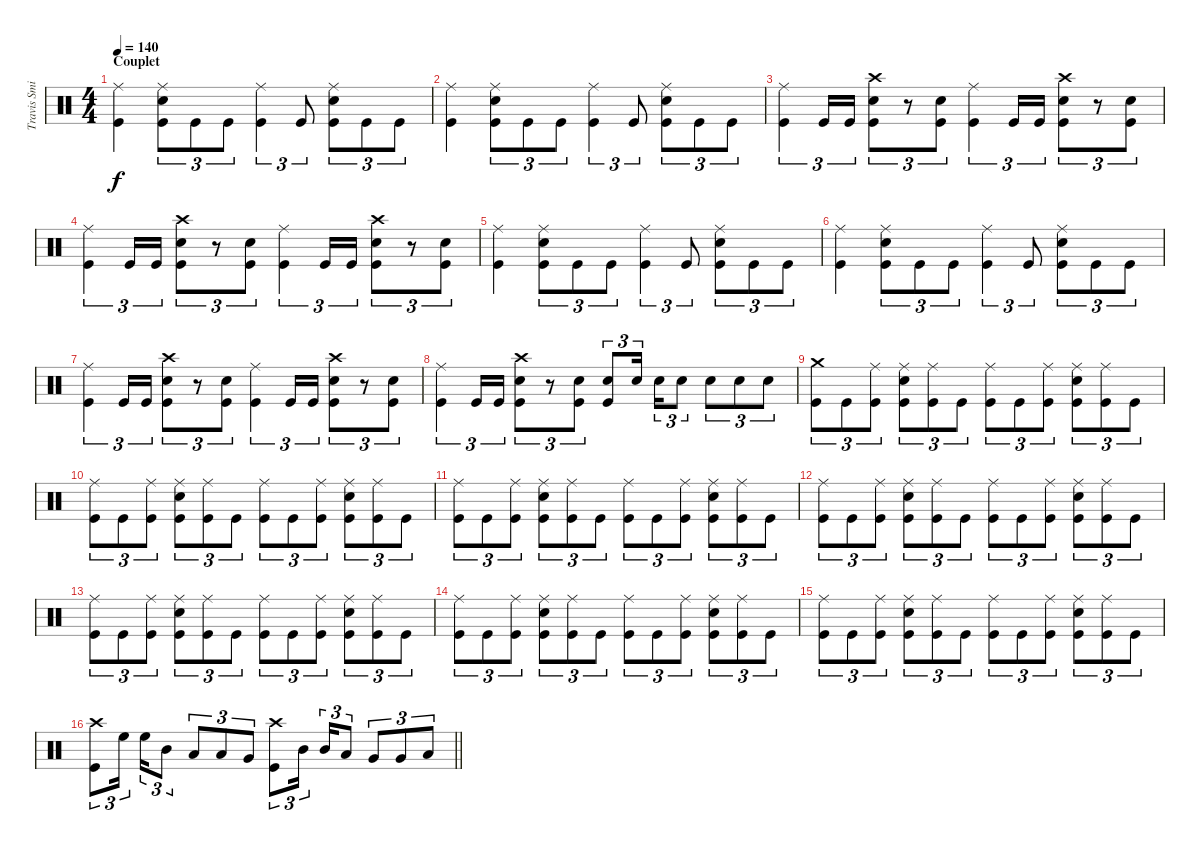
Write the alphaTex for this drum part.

\track ("Travis Smith" "Travis Smi") {instrument percussion}
\staff {score}
\articulation defaults
\ts (4 4)
\section ("" "Couplet ")
\tempo 140
\clef neutral
\ks c
("Ride (middle)" "Kick (hit)").4{dy f} ("Ride (middle)" "Snare (hit) 2" "Kick (hit)").8{tu (3 2)} "Kick (hit)".8{tu (3 2)} "Kick (hit)".8{tu (3 2)} ("Ride (middle)" "Kick (hit)").4{tu (3 2)} "Kick (hit)".8{tu (3 2)} ("Ride (middle)" "Snare (hit) 2" "Kick (hit)").8{tu (3 2)} "Kick (hit)".8{tu (3 2)} "Kick (hit)".8{tu (3 2)} |
("Ride (middle)" "Kick (hit)").4 ("Ride (middle)" "Snare (hit) 2" "Kick (hit)").8{tu (3 2)} "Kick (hit)".8{tu (3 2)} "Kick (hit)".8{tu (3 2)} ("Ride (middle)" "Kick (hit)").4{tu (3 2)} "Kick (hit)".8{tu (3 2)} ("Ride (middle)" "Snare (hit) 2" "Kick (hit)").8{tu (3 2)} "Kick (hit)".8{tu (3 2)} "Kick (hit)".8{tu (3 2)} |
("Ride (middle)" "Kick (hit)").4{tu (3 2)} "Kick (hit)".16{tu (3 2)} "Kick (hit)".16{tu (3 2)} ("Crash high (hit)" "Snare (hit) 2" "Kick (hit)").8{tu (3 2)} r.8{tu (3 2)} ("Snare (hit) 2" "Kick (hit)").8{tu (3 2)} ("Ride (middle)" "Kick (hit)").4{tu (3 2)} "Kick (hit)".16{tu (3 2)} "Kick (hit)".16{tu (3 2)} ("Crash high (hit)" "Snare (hit) 2" "Kick (hit)").8{tu (3 2)} r.8{tu (3 2)} ("Snare (hit) 2" "Kick (hit)").8{tu (3 2)} |
("Ride (middle)" "Kick (hit)").4{tu (3 2)} "Kick (hit)".16{tu (3 2)} "Kick (hit)".16{tu (3 2)} ("Crash high (hit)" "Snare (hit) 2" "Kick (hit)").8{tu (3 2)} r.8{tu (3 2)} ("Snare (hit) 2" "Kick (hit)").8{tu (3 2)} ("Ride (middle)" "Kick (hit)").4{tu (3 2)} "Kick (hit)".16{tu (3 2)} "Kick (hit)".16{tu (3 2)} ("Crash high (hit)" "Snare (hit) 2" "Kick (hit)").8{tu (3 2)} r.8{tu (3 2)} ("Snare (hit) 2" "Kick (hit)").8{tu (3 2)} |
("Ride (middle)" "Kick (hit)").4 ("Ride (middle)" "Snare (hit) 2" "Kick (hit)").8{tu (3 2)} "Kick (hit)".8{tu (3 2)} "Kick (hit)".8{tu (3 2)} ("Ride (middle)" "Kick (hit)").4{tu (3 2)} "Kick (hit)".8{tu (3 2)} ("Ride (middle)" "Snare (hit) 2" "Kick (hit)").8{tu (3 2)} "Kick (hit)".8{tu (3 2)} "Kick (hit)".8{tu (3 2)} |
("Ride (middle)" "Kick (hit)").4 ("Ride (middle)" "Snare (hit) 2" "Kick (hit)").8{tu (3 2)} "Kick (hit)".8{tu (3 2)} "Kick (hit)".8{tu (3 2)} ("Ride (middle)" "Kick (hit)").4{tu (3 2)} "Kick (hit)".8{tu (3 2)} ("Ride (middle)" "Snare (hit) 2" "Kick (hit)").8{tu (3 2)} "Kick (hit)".8{tu (3 2)} "Kick (hit)".8{tu (3 2)} |
("Ride (middle)" "Kick (hit)").4{tu (3 2)} "Kick (hit)".16{tu (3 2)} "Kick (hit)".16{tu (3 2)} ("Crash high (hit)" "Snare (hit) 2" "Kick (hit)").8{tu (3 2)} r.8{tu (3 2)} ("Snare (hit) 2" "Kick (hit)").8{tu (3 2)} ("Ride (middle)" "Kick (hit)").4{tu (3 2)} "Kick (hit)".16{tu (3 2)} "Kick (hit)".16{tu (3 2)} ("Crash high (hit)" "Snare (hit) 2" "Kick (hit)").8{tu (3 2)} r.8{tu (3 2)} ("Snare (hit) 2" "Kick (hit)").8{tu (3 2)} |
("Ride (middle)" "Kick (hit)").4{tu (3 2)} "Kick (hit)".16{tu (3 2)} "Kick (hit)".16{tu (3 2)} ("Crash high (hit)" "Snare (hit) 2" "Kick (hit)").8{tu (3 2)} r.8{tu (3 2)} ("Snare (hit) 2" "Kick (hit)").8{tu (3 2)} ("Snare (hit) 2" "Kick (hit)").8{tu (3 2)} "Snare (hit) 2".16{tu (3 2) beam splitsecondary} "Snare (hit) 2".16{tu (3 2)} "Snare (hit) 2".8{tu (3 2)} "Snare (hit) 2".8{tu (3 2)} "Snare (hit) 2".8{tu (3 2)} "Snare (hit) 2".8{tu (3 2)} |
("Crash medium (hit)" "Kick (hit)").8{tu (3 2)} "Kick (hit)".8{tu (3 2)} ("Ride (middle)" "Kick (hit)").8{tu (3 2)} ("Ride (middle)" "Snare (hit) 2" "Kick (hit)").8{tu (3 2)} ("Ride (middle)" "Kick (hit)").8{tu (3 2)} "Kick (hit)".8{tu (3 2)} ("Ride (middle)" "Kick (hit)").8{tu (3 2)} "Kick (hit)".8{tu (3 2)} ("Ride (middle)" "Kick (hit)").8{tu (3 2)} ("Ride (middle)" "Snare (hit) 2" "Kick (hit)").8{tu (3 2)} ("Ride (middle)" "Kick (hit)").8{tu (3 2)} "Kick (hit)".8{tu (3 2)} |
("Ride (middle)" "Kick (hit)").8{tu (3 2)} "Kick (hit)".8{tu (3 2)} ("Ride (middle)" "Kick (hit)").8{tu (3 2)} ("Ride (middle)" "Snare (hit) 2" "Kick (hit)").8{tu (3 2)} ("Ride (middle)" "Kick (hit)").8{tu (3 2)} "Kick (hit)".8{tu (3 2)} ("Ride (middle)" "Kick (hit)").8{tu (3 2)} "Kick (hit)".8{tu (3 2)} ("Ride (middle)" "Kick (hit)").8{tu (3 2)} ("Ride (middle)" "Snare (hit) 2" "Kick (hit)").8{tu (3 2)} ("Ride (middle)" "Kick (hit)").8{tu (3 2)} "Kick (hit)".8{tu (3 2)} |
("Ride (middle)" "Kick (hit)").8{tu (3 2)} "Kick (hit)".8{tu (3 2)} ("Ride (middle)" "Kick (hit)").8{tu (3 2)} ("Ride (middle)" "Snare (hit) 2" "Kick (hit)").8{tu (3 2)} ("Ride (middle)" "Kick (hit)").8{tu (3 2)} "Kick (hit)".8{tu (3 2)} ("Ride (middle)" "Kick (hit)").8{tu (3 2)} "Kick (hit)".8{tu (3 2)} ("Ride (middle)" "Kick (hit)").8{tu (3 2)} ("Ride (middle)" "Snare (hit) 2" "Kick (hit)").8{tu (3 2)} ("Ride (middle)" "Kick (hit)").8{tu (3 2)} "Kick (hit)".8{tu (3 2)} |
("Ride (middle)" "Kick (hit)").8{tu (3 2)} "Kick (hit)".8{tu (3 2)} ("Ride (middle)" "Kick (hit)").8{tu (3 2)} ("Ride (middle)" "Snare (hit) 2" "Kick (hit)").8{tu (3 2)} ("Ride (middle)" "Kick (hit)").8{tu (3 2)} "Kick (hit)".8{tu (3 2)} ("Ride (middle)" "Kick (hit)").8{tu (3 2)} "Kick (hit)".8{tu (3 2)} ("Ride (middle)" "Kick (hit)").8{tu (3 2)} ("Ride (middle)" "Snare (hit) 2" "Kick (hit)").8{tu (3 2)} ("Ride (middle)" "Kick (hit)").8{tu (3 2)} "Kick (hit)".8{tu (3 2)} |
("Ride (middle)" "Kick (hit)").8{tu (3 2)} "Kick (hit)".8{tu (3 2)} ("Ride (middle)" "Kick (hit)").8{tu (3 2)} ("Ride (middle)" "Snare (hit) 2" "Kick (hit)").8{tu (3 2)} ("Ride (middle)" "Kick (hit)").8{tu (3 2)} "Kick (hit)".8{tu (3 2)} ("Ride (middle)" "Kick (hit)").8{tu (3 2)} "Kick (hit)".8{tu (3 2)} ("Ride (middle)" "Kick (hit)").8{tu (3 2)} ("Ride (middle)" "Snare (hit) 2" "Kick (hit)").8{tu (3 2)} ("Ride (middle)" "Kick (hit)").8{tu (3 2)} "Kick (hit)".8{tu (3 2)} |
("Ride (middle)" "Kick (hit)").8{tu (3 2)} "Kick (hit)".8{tu (3 2)} ("Ride (middle)" "Kick (hit)").8{tu (3 2)} ("Ride (middle)" "Snare (hit) 2" "Kick (hit)").8{tu (3 2)} ("Ride (middle)" "Kick (hit)").8{tu (3 2)} "Kick (hit)".8{tu (3 2)} ("Ride (middle)" "Kick (hit)").8{tu (3 2)} "Kick (hit)".8{tu (3 2)} ("Ride (middle)" "Kick (hit)").8{tu (3 2)} ("Ride (middle)" "Snare (hit) 2" "Kick (hit)").8{tu (3 2)} ("Ride (middle)" "Kick (hit)").8{tu (3 2)} "Kick (hit)".8{tu (3 2)} |
("Ride (middle)" "Kick (hit)").8{tu (3 2)} "Kick (hit)".8{tu (3 2)} ("Ride (middle)" "Kick (hit)").8{tu (3 2)} ("Ride (middle)" "Snare (hit) 2" "Kick (hit)").8{tu (3 2)} ("Ride (middle)" "Kick (hit)").8{tu (3 2)} "Kick (hit)".8{tu (3 2)} ("Ride (middle)" "Kick (hit)").8{tu (3 2)} "Kick (hit)".8{tu (3 2)} ("Ride (middle)" "Kick (hit)").8{tu (3 2)} ("Ride (middle)" "Snare (hit) 2" "Kick (hit)").8{tu (3 2)} ("Ride (middle)" "Kick (hit)").8{tu (3 2)} "Kick (hit)".8{tu (3 2)} |
\barLineRight lightlight
("Crash high (hit)" "Kick (hit)").8{tu (3 2)} "High Floor Tom (hit)".16{tu (3 2) beam splitsecondary} "High Floor Tom (hit)".16{tu (3 2)} "Mid Tom (hit)".8{tu (3 2)} "Low Tom (hit)".8{tu (3 2)} "Low Tom (hit)".8{tu (3 2)} "Very Low Tom (hit)".8{tu (3 2)} ("Crash high (hit)" "Kick (hit)").8{tu (3 2)} "Mid Tom (hit)".16{tu (3 2) beam splitsecondary} "Mid Tom (hit)".16{tu (3 2)} "Low Tom (hit)".8{tu (3 2)} "Very Low Tom (hit)".8{tu (3 2)} "Very Low Tom (hit)".8{tu (3 2)} "Low Floor Tom (hit)".8{tu (3 2)}
